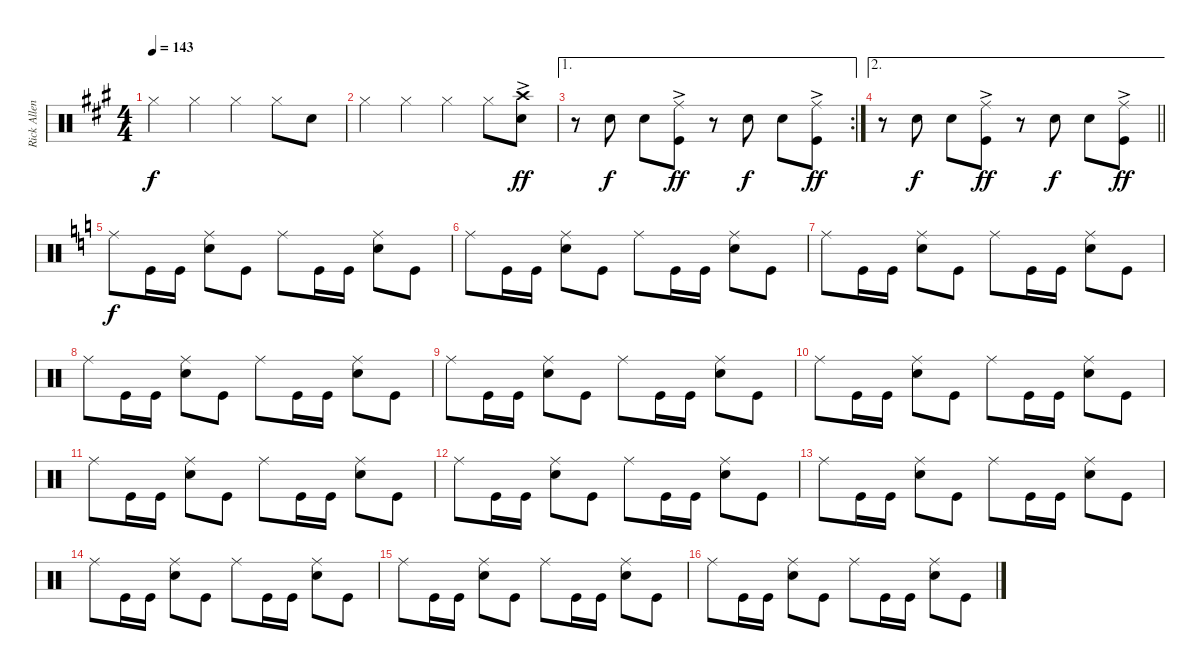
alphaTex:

\track ("Rick Allen" "Rick Allen") {instrument percussion}
\staff {score}
\articulation defaults
\ts (4 4)
\tempo 143
\clef neutral
\ks a "Hi-Hat (closed)".4{dy f} "Hi-Hat (closed)".4 "Hi-Hat (closed)".4 "Hi-Hat (closed)".8 "Snare (hit) 2".8
|
"Hi-Hat (closed)".4 "Hi-Hat (closed)".4 "Hi-Hat (closed)".4 "Hi-Hat (closed)".8 ("Crash high (hit)"{ac} "Snare (hit) 2").8{dy ff} |
\ae 1
\rc 2
r.8 "Snare (hit) 2".8{dy f} "Snare (hit) 2".8 ("Ride (middle)"{ac} "Kick (hit)").8{dy ff} r.8 "Snare (hit) 2".8{dy f} "Snare (hit) 2".8 ("Ride (middle)"{ac} "Kick (hit)").8{dy ff} |
\ae 2
\barLineRight lightlight
r.8 "Snare (hit) 2".8{dy f} "Snare (hit) 2".8 ("Ride (middle)"{ac} "Kick (hit)").8{dy ff} r.8 "Snare (hit) 2".8{dy f} "Snare (hit) 2".8 ("Ride (middle)"{ac} "Kick (hit)").8{dy ff} |
\ks aminor "Ride (middle)".8{dy f} "Kick (hit)".16 "Kick (hit)".16
("Ride (middle)" "Snare (hit) 2").8 "Kick (hit)".8 "Ride (middle)".8 "Kick (hit)".16 "Kick (hit)".16 ("Ride (middle)" "Snare (hit) 2").8 "Kick (hit)".8 |
"Ride (middle)".8 "Kick (hit)".16 "Kick (hit)".16 ("Ride (middle)" "Snare (hit) 2").8 "Kick (hit)".8 "Ride (middle)".8 "Kick (hit)".16 "Kick (hit)".16 ("Ride (middle)" "Snare (hit) 2").8 "Kick (hit)".8 |
"Ride (middle)".8 "Kick (hit)".16 "Kick (hit)".16 ("Ride (middle)" "Snare (hit) 2").8 "Kick (hit)".8 "Ride (middle)".8 "Kick (hit)".16 "Kick (hit)".16 ("Ride (middle)" "Snare (hit) 2").8 "Kick (hit)".8 |
"Ride (middle)".8 "Kick (hit)".16 "Kick (hit)".16 ("Ride (middle)" "Snare (hit) 2").8 "Kick (hit)".8 "Ride (middle)".8 "Kick (hit)".16 "Kick (hit)".16 ("Ride (middle)" "Snare (hit) 2").8 "Kick (hit)".8 |
"Ride (middle)".8 "Kick (hit)".16 "Kick (hit)".16 ("Ride (middle)" "Snare (hit) 2").8 "Kick (hit)".8 "Ride (middle)".8 "Kick (hit)".16 "Kick (hit)".16 ("Ride (middle)" "Snare (hit) 2").8 "Kick (hit)".8 |
"Ride (middle)".8 "Kick (hit)".16 "Kick (hit)".16 ("Ride (middle)" "Snare (hit) 2").8 "Kick (hit)".8 "Ride (middle)".8 "Kick (hit)".16 "Kick (hit)".16 ("Ride (middle)" "Snare (hit) 2").8 "Kick (hit)".8 |
"Ride (middle)".8 "Kick (hit)".16 "Kick (hit)".16 ("Ride (middle)" "Snare (hit) 2").8 "Kick (hit)".8 "Ride (middle)".8 "Kick (hit)".16 "Kick (hit)".16 ("Ride (middle)" "Snare (hit) 2").8 "Kick (hit)".8 |
"Ride (middle)".8 "Kick (hit)".16 "Kick (hit)".16 ("Ride (middle)" "Snare (hit) 2").8 "Kick (hit)".8 "Ride (middle)".8 "Kick (hit)".16 "Kick (hit)".16 ("Ride (middle)" "Snare (hit) 2").8 "Kick (hit)".8 |
"Ride (middle)".8 "Kick (hit)".16 "Kick (hit)".16 ("Ride (middle)" "Snare (hit) 2").8 "Kick (hit)".8 "Ride (middle)".8 "Kick (hit)".16 "Kick (hit)".16 ("Ride (middle)" "Snare (hit) 2").8 "Kick (hit)".8 |
"Ride (middle)".8 "Kick (hit)".16 "Kick (hit)".16 ("Ride (middle)" "Snare (hit) 2").8 "Kick (hit)".8 "Ride (middle)".8 "Kick (hit)".16 "Kick (hit)".16 ("Ride (middle)" "Snare (hit) 2").8 "Kick (hit)".8 |
"Ride (middle)".8 "Kick (hit)".16 "Kick (hit)".16 ("Ride (middle)" "Snare (hit) 2").8 "Kick (hit)".8 "Ride (middle)".8 "Kick (hit)".16 "Kick (hit)".16 ("Ride (middle)" "Snare (hit) 2").8 "Kick (hit)".8 |
"Ride (middle)".8 "Kick (hit)".16 "Kick (hit)".16 ("Ride (middle)" "Snare (hit) 2").8 "Kick (hit)".8 "Ride (middle)".8 "Kick (hit)".16 "Kick (hit)".16 ("Ride (middle)" "Snare (hit) 2").8 "Kick (hit)".8
